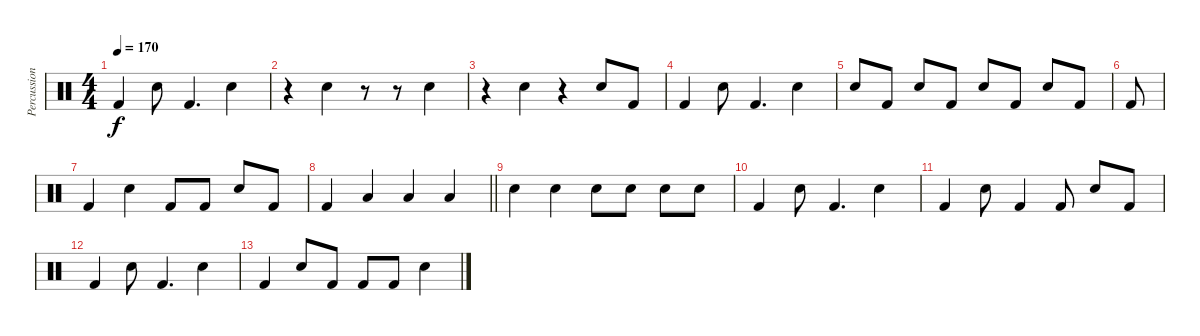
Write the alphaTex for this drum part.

\track ("Percussion" "Percussion") {instrument percussion}
\staff {score}
\articulation defaults
\ts (4 4)
\tempo 170
\clef neutral
\ks c "Kick (hit) 2".4{dy f} "Hand Clap (hit)".8 "Kick (hit) 2".4{d} "Hand Clap (hit)".4
|
r.4 "Hand Clap (hit)".4 r.8 r.8 "Hand Clap (hit)".4 |
r.4 "Hand Clap (hit)".4 r.4 "Hand Clap (hit)".8 "Kick (hit) 2".8 |
"Kick (hit) 2".4 "Hand Clap (hit)".8 "Kick (hit) 2".4{d} "Hand Clap (hit)".4 |
"Hand Clap (hit)".8 "Kick (hit) 2".8 "Hand Clap (hit)".8 "Kick (hit) 2".8 "Hand Clap (hit)".8 "Kick (hit) 2".8 "Hand Clap (hit)".8 "Kick (hit) 2".8 |
"Kick (hit) 2".8 |
"Kick (hit) 2".4 "Hand Clap (hit)".4 "Kick (hit) 2".8 "Kick (hit) 2".8 "Hand Clap (hit)".8 "Kick (hit) 2".8 |
\barLineRight lightlight "Kick (hit) 2".4 "Low Tom (hit)".4 "Low Tom (hit)".4 "Low Tom (hit)".4
|
"Electric Snare (hit)".4 "Electric Snare (hit)".4 "Electric Snare (hit)".8 "Electric Snare (hit)".8 "Electric Snare (hit)".8 "Electric Snare (hit)".8 |
"Kick (hit) 2".4 "Hand Clap (hit)".8 "Kick (hit) 2".4{d} "Hand Clap (hit)".4 |
"Kick (hit) 2".4 "Hand Clap (hit)".8 "Kick (hit) 2".4 "Kick (hit) 2".8 "Hand Clap (hit)".8 "Kick (hit) 2".8 |
"Kick (hit) 2".4 "Hand Clap (hit)".8 "Kick (hit) 2".4{d} "Hand Clap (hit)".4 |
"Kick (hit) 2".4 "Hand Clap (hit)".8 "Kick (hit) 2".8 "Kick (hit) 2".8 "Kick (hit) 2".8 "Hand Clap (hit)".4
